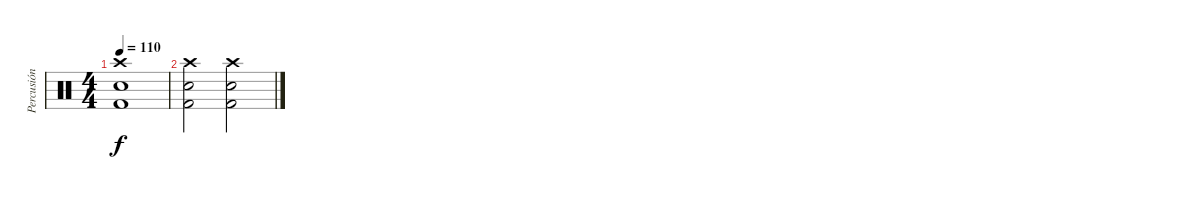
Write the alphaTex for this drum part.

\track ("Percusión" "Percusión") {instrument percussion}
\staff {score}
\articulation defaults
\ts (4 4)
\tempo 110
\clef neutral
\ks c
("Crash high (hit)" "Snare (hit) 2" "Kick (hit) 2").1{dy f} |
("Crash high (hit)" "Kick (hit) 2" "Snare (hit) 2").2 ("Crash high (hit)" "Kick (hit) 2" "Snare (hit) 2").2
